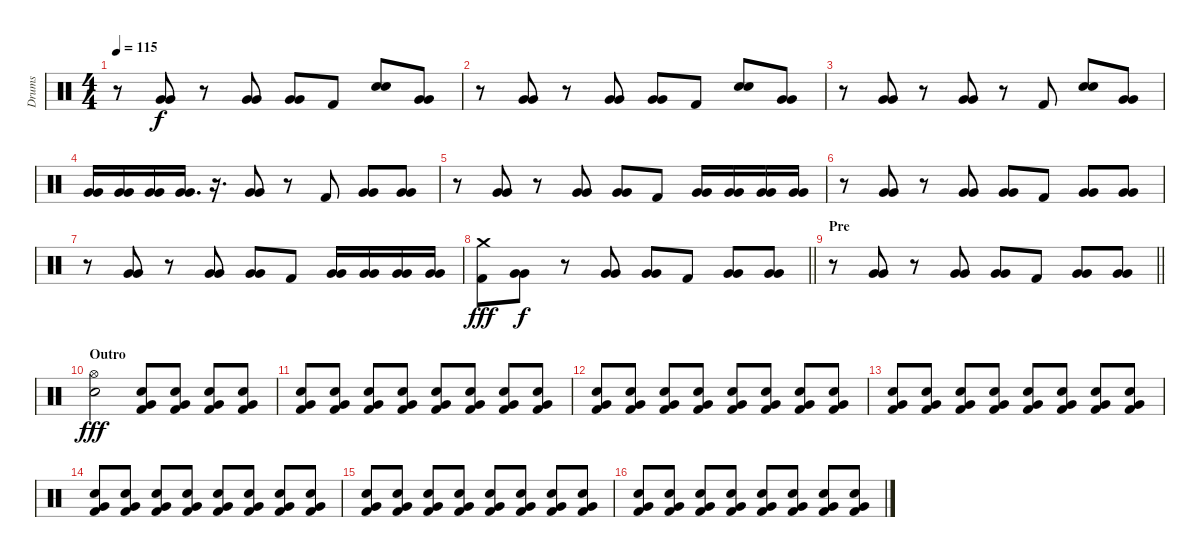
\track ("Drums" "Drums") {instrument percussion}
\staff {score}
\articulation defaults
\ts (4 4)
\tempo 115
\clef neutral
\ks c
r.8{dy f} ("Very Low Tom (hit)" "Very Low Tom (hit)").8{bu 240} r.8 ("Very Low Tom (hit)" "Very Low Tom (hit)").8{bu 240} ("Very Low Tom (hit)" "Very Low Tom (hit)").8{bu 240} "Kick (hit) 2".8 ("Electric Snare (hit)" "Electric Snare (hit)").8{bu 240} ("Very Low Tom (hit)" "Very Low Tom (hit)").8{bd 240} |
r.8 ("Very Low Tom (hit)" "Very Low Tom (hit)").8{bu 240} r.8 ("Very Low Tom (hit)" "Very Low Tom (hit)").8{bu 240} ("Very Low Tom (hit)" "Very Low Tom (hit)").8{bu 240} "Kick (hit) 2".8 ("Electric Snare (hit)" "Electric Snare (hit)").8{bu 240} ("Very Low Tom (hit)" "Very Low Tom (hit)").8{bu 240} |
r.8 ("Very Low Tom (hit)" "Very Low Tom (hit)").8{bu 240} r.8 ("Very Low Tom (hit)" "Very Low Tom (hit)").8{bu 240} r.8 "Kick (hit) 2".8 ("Electric Snare (hit)" "Electric Snare (hit)").8{bu 240} ("Very Low Tom (hit)" "Very Low Tom (hit)").8{bd 240} |
("Very Low Tom (hit)" "Very Low Tom (hit)").16 ("Very Low Tom (hit)" "Very Low Tom (hit)").16 ("Very Low Tom (hit)" "Very Low Tom (hit)").16 ("Very Low Tom (hit)" "Very Low Tom (hit)").16{d} r.16{d} ("Very Low Tom (hit)" "Very Low Tom (hit)").8{bu 240} r.8 "Kick (hit) 2".8 ("Very Low Tom (hit)" "Very Low Tom (hit)").8{bu 240} ("Very Low Tom (hit)" "Very Low Tom (hit)").8{bd 240} |
r.8 ("Very Low Tom (hit)" "Very Low Tom (hit)").8{bu 240} r.8 ("Very Low Tom (hit)" "Very Low Tom (hit)").8{bu 240} ("Very Low Tom (hit)" "Very Low Tom (hit)").8{bu 240} "Kick (hit) 2".8 ("Very Low Tom (hit)" "Very Low Tom (hit)").16 ("Very Low Tom (hit)" "Very Low Tom (hit)").16 ("Very Low Tom (hit)" "Very Low Tom (hit)").16 ("Very Low Tom (hit)" "Very Low Tom (hit)").16 |
r.8 ("Very Low Tom (hit)" "Very Low Tom (hit)").8{bu 240} r.8 ("Very Low Tom (hit)" "Very Low Tom (hit)").8{bu 240} ("Very Low Tom (hit)" "Very Low Tom (hit)").8{bu 240} "Kick (hit) 2".8 ("Very Low Tom (hit)" "Very Low Tom (hit)").8{bu 240} ("Very Low Tom (hit)" "Very Low Tom (hit)").8{bu 120} |
r.8 ("Very Low Tom (hit)" "Very Low Tom (hit)").8{bu 240} r.8 ("Very Low Tom (hit)" "Very Low Tom (hit)").8{bu 240} ("Very Low Tom (hit)" "Very Low Tom (hit)").8{bu 240} "Kick (hit) 2".8 ("Very Low Tom (hit)" "Very Low Tom (hit)").16 ("Very Low Tom (hit)" "Very Low Tom (hit)").16 ("Very Low Tom (hit)" "Very Low Tom (hit)").16 ("Very Low Tom (hit)" "Very Low Tom (hit)").16 |
\barLineRight lightlight
("Crash medium (hit)" "Kick (hit) 2").8{dy fff} ("Very Low Tom (hit)" "Very Low Tom (hit)").8{bu 240 dy f} r.8 ("Very Low Tom (hit)" "Very Low Tom (hit)").8{bu 240} ("Very Low Tom (hit)" "Very Low Tom (hit)").8{bu 240} "Kick (hit) 2".8 ("Very Low Tom (hit)" "Very Low Tom (hit)").8{bu 240} ("Very Low Tom (hit)" "Very Low Tom (hit)").8{bd 240} |
\section ("" "Pre")
\barLineRight lightlight
r.8 ("Very Low Tom (hit)" "Very Low Tom (hit)").8{bu 240} r.8 ("Very Low Tom (hit)" "Very Low Tom (hit)").8{bu 240} ("Very Low Tom (hit)" "Very Low Tom (hit)").8{bu 240} "Kick (hit) 2".8 ("Very Low Tom (hit)" "Very Low Tom (hit)").8{bu 240} ("Very Low Tom (hit)" "Very Low Tom (hit)").8{bu 120} |
\section ("" "Outro")
("Hi-Hat (open)" "Electric Snare (hit)").2{dy fff} ("Electric Snare (hit)" "Very Low Tom (hit)" "Kick (hit) 2").8{volume 4} ("Electric Snare (hit)" "Very Low Tom (hit)" "Kick (hit) 2").8{volume 8} ("Electric Snare (hit)" "Very Low Tom (hit)" "Kick (hit) 2").8 ("Electric Snare (hit)" "Very Low Tom (hit)" "Kick (hit) 2").8 |
("Electric Snare (hit)" "Very Low Tom (hit)" "Kick (hit) 2").8 ("Electric Snare (hit)" "Very Low Tom (hit)" "Kick (hit) 2").8 ("Electric Snare (hit)" "Very Low Tom (hit)" "Kick (hit) 2").8 ("Electric Snare (hit)" "Very Low Tom (hit)" "Kick (hit) 2").8 ("Electric Snare (hit)" "Very Low Tom (hit)" "Kick (hit) 2").8 ("Electric Snare (hit)" "Very Low Tom (hit)" "Kick (hit) 2").8 ("Electric Snare (hit)" "Very Low Tom (hit)" "Kick (hit) 2").8 ("Electric Snare (hit)" "Very Low Tom (hit)" "Kick (hit) 2").8 |
("Electric Snare (hit)" "Very Low Tom (hit)" "Kick (hit) 2").8 ("Electric Snare (hit)" "Very Low Tom (hit)" "Kick (hit) 2").8 ("Electric Snare (hit)" "Very Low Tom (hit)" "Kick (hit) 2").8 ("Electric Snare (hit)" "Very Low Tom (hit)" "Kick (hit) 2").8 ("Electric Snare (hit)" "Very Low Tom (hit)" "Kick (hit) 2").8 ("Electric Snare (hit)" "Very Low Tom (hit)" "Kick (hit) 2").8 ("Electric Snare (hit)" "Very Low Tom (hit)" "Kick (hit) 2").8 ("Electric Snare (hit)" "Very Low Tom (hit)" "Kick (hit) 2").8 |
("Electric Snare (hit)" "Very Low Tom (hit)" "Kick (hit) 2").8 ("Electric Snare (hit)" "Very Low Tom (hit)" "Kick (hit) 2").8 ("Electric Snare (hit)" "Very Low Tom (hit)" "Kick (hit) 2").8 ("Electric Snare (hit)" "Very Low Tom (hit)" "Kick (hit) 2").8 ("Electric Snare (hit)" "Very Low Tom (hit)" "Kick (hit) 2").8 ("Electric Snare (hit)" "Very Low Tom (hit)" "Kick (hit) 2").8 ("Electric Snare (hit)" "Very Low Tom (hit)" "Kick (hit) 2").8 ("Electric Snare (hit)" "Very Low Tom (hit)" "Kick (hit) 2").8 |
("Electric Snare (hit)" "Very Low Tom (hit)" "Kick (hit) 2").8 ("Electric Snare (hit)" "Very Low Tom (hit)" "Kick (hit) 2").8 ("Electric Snare (hit)" "Very Low Tom (hit)" "Kick (hit) 2").8 ("Electric Snare (hit)" "Very Low Tom (hit)" "Kick (hit) 2").8 ("Electric Snare (hit)" "Very Low Tom (hit)" "Kick (hit) 2").8 ("Electric Snare (hit)" "Very Low Tom (hit)" "Kick (hit) 2").8 ("Electric Snare (hit)" "Very Low Tom (hit)" "Kick (hit) 2").8 ("Electric Snare (hit)" "Very Low Tom (hit)" "Kick (hit) 2").8 |
("Electric Snare (hit)" "Very Low Tom (hit)" "Kick (hit) 2").8{volume 8} ("Electric Snare (hit)" "Very Low Tom (hit)" "Kick (hit) 2").8{volume 16} ("Electric Snare (hit)" "Very Low Tom (hit)" "Kick (hit) 2").8 ("Electric Snare (hit)" "Very Low Tom (hit)" "Kick (hit) 2").8 ("Electric Snare (hit)" "Very Low Tom (hit)" "Kick (hit) 2").8 ("Electric Snare (hit)" "Very Low Tom (hit)" "Kick (hit) 2").8 ("Electric Snare (hit)" "Very Low Tom (hit)" "Kick (hit) 2").8 ("Electric Snare (hit)" "Very Low Tom (hit)" "Kick (hit) 2").8 |
("Electric Snare (hit)" "Very Low Tom (hit)" "Kick (hit) 2").8 ("Electric Snare (hit)" "Very Low Tom (hit)" "Kick (hit) 2").8 ("Electric Snare (hit)" "Very Low Tom (hit)" "Kick (hit) 2").8 ("Electric Snare (hit)" "Very Low Tom (hit)" "Kick (hit) 2").8 ("Electric Snare (hit)" "Very Low Tom (hit)" "Kick (hit) 2").8 ("Electric Snare (hit)" "Very Low Tom (hit)" "Kick (hit) 2").8 ("Electric Snare (hit)" "Very Low Tom (hit)" "Kick (hit) 2").8 ("Electric Snare (hit)" "Very Low Tom (hit)" "Kick (hit) 2").8
